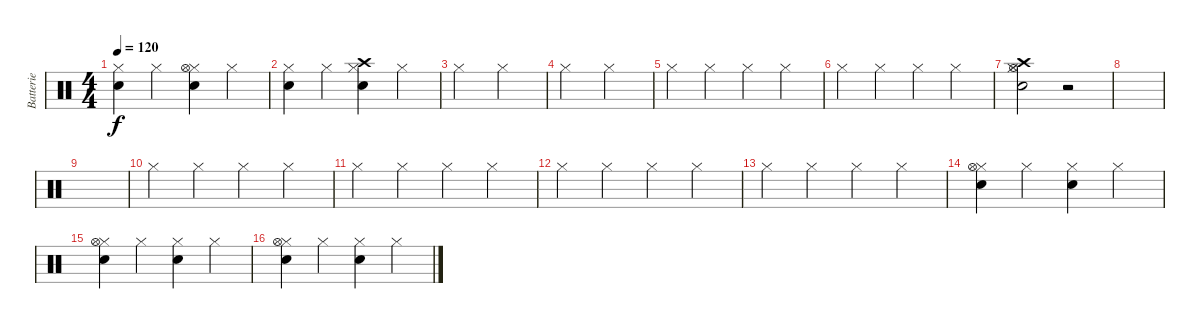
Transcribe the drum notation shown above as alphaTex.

\track ("Batterie" "Batterie") {instrument percussion}
\staff {score}
\articulation defaults
\ts (4 4)
\tempo 120
\clef neutral
\ks c
("Hi-Hat (closed)" "Electric Snare (hit)").4{dy f} "Hi-Hat (closed)".4 ("Hi-Hat (closed)" "Electric Snare (hit)" "Hi-Hat (open)").4 "Hi-Hat (closed)".4 |
("Hi-Hat (closed)" "Electric Snare (hit)").4 "Hi-Hat (closed)".4 ("Hi-Hat (closed)" "Electric Snare (hit)" "Crash high (hit)").4 "Hi-Hat (closed)".4 |
"Hi-Hat (closed)".2 "Hi-Hat (closed)".2 |
"Hi-Hat (closed)".2 "Hi-Hat (closed)".2 |
"Hi-Hat (closed)".4 "Hi-Hat (closed)".4 "Hi-Hat (closed)".4 "Hi-Hat (closed)".4 |
"Hi-Hat (closed)".4 "Hi-Hat (closed)".4 "Hi-Hat (closed)".4 "Hi-Hat (closed)".4 |
("Hi-Hat (closed)" "Crash high (hit)" "Electric Snare (hit)" "Hi-Hat (open)").2 r.2 |
|
|
"Hi-Hat (closed)".4 "Hi-Hat (closed)".4 "Hi-Hat (closed)".4 "Hi-Hat (closed)".4 |
"Hi-Hat (closed)".4 "Hi-Hat (closed)".4 "Hi-Hat (closed)".4 "Hi-Hat (closed)".4 |
"Hi-Hat (closed)".4 "Hi-Hat (closed)".4 "Hi-Hat (closed)".4 "Hi-Hat (closed)".4 |
"Hi-Hat (closed)".4 "Hi-Hat (closed)".4 "Hi-Hat (closed)".4 "Hi-Hat (closed)".4 |
("Hi-Hat (closed)" "Electric Snare (hit)" "Hi-Hat (open)").4 "Hi-Hat (closed)".4 ("Hi-Hat (closed)" "Electric Snare (hit)").4 "Hi-Hat (closed)".4 |
("Hi-Hat (closed)" "Electric Snare (hit)" "Hi-Hat (open)").4 "Hi-Hat (closed)".4 ("Hi-Hat (closed)" "Electric Snare (hit)").4 "Hi-Hat (closed)".4 |
("Hi-Hat (closed)" "Electric Snare (hit)" "Hi-Hat (open)").4 "Hi-Hat (closed)".4 ("Hi-Hat (closed)" "Electric Snare (hit)").4 "Hi-Hat (closed)".4
